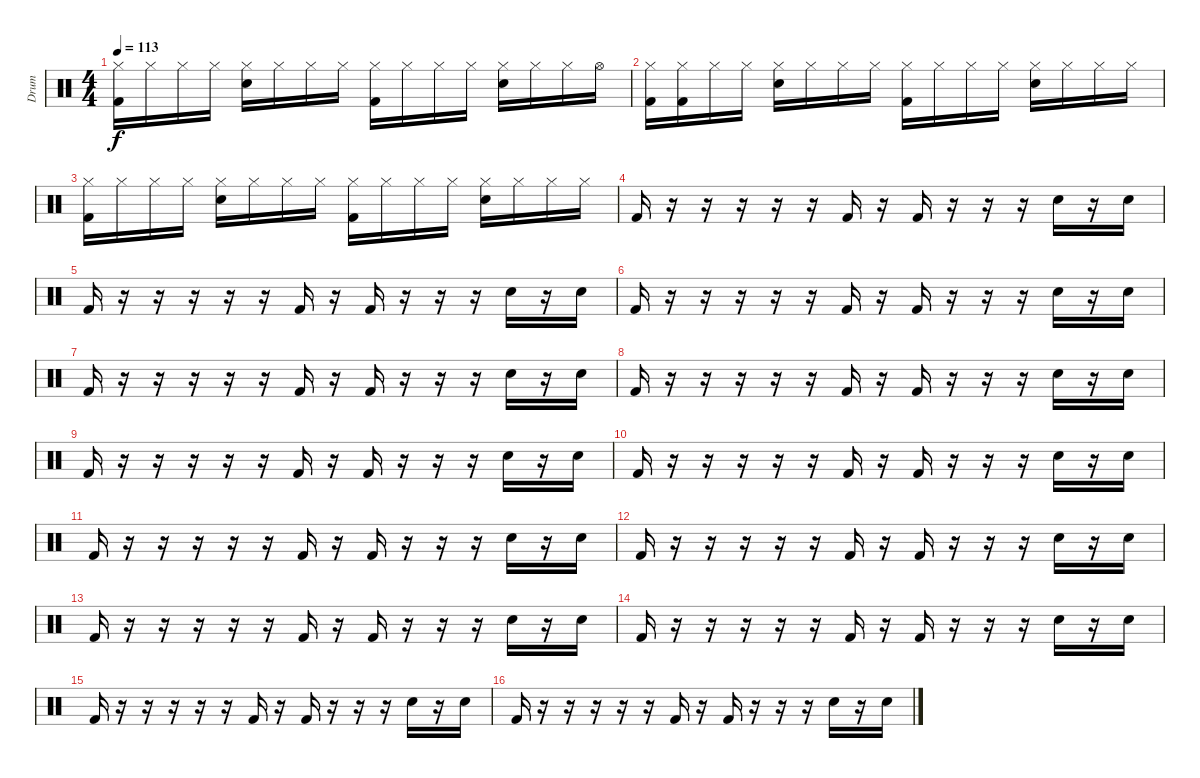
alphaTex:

\track ("Drum" "Drum") {instrument percussion}
\staff {score}
\articulation defaults
\ts (4 4)
\tempo 113
\clef neutral
\ks c
("Hi-Hat (closed)" "Kick (hit) 2").16{dy f} "Hi-Hat (closed)".16 "Hi-Hat (closed)".16 "Hi-Hat (closed)".16 ("Hi-Hat (closed)" "Snare (hit) 2").16 "Hi-Hat (closed)".16 "Hi-Hat (closed)".16 "Hi-Hat (closed)".16 ("Hi-Hat (closed)" "Kick (hit) 2").16 "Hi-Hat (closed)".16 "Hi-Hat (closed)".16 "Hi-Hat (closed)".16 ("Hi-Hat (closed)" "Snare (hit) 2").16 "Hi-Hat (closed)".16 "Hi-Hat (closed)".16 "Hi-Hat (open)".16 |
("Hi-Hat (closed)" "Kick (hit) 2").16 ("Hi-Hat (closed)" "Kick (hit) 2").16 "Hi-Hat (closed)".16 "Hi-Hat (closed)".16 ("Hi-Hat (closed)" "Snare (hit) 2").16 "Hi-Hat (closed)".16 "Hi-Hat (closed)".16 "Hi-Hat (closed)".16 ("Hi-Hat (closed)" "Kick (hit) 2").16 "Hi-Hat (closed)".16 "Hi-Hat (closed)".16 "Hi-Hat (closed)".16 ("Hi-Hat (closed)" "Snare (hit) 2").16 "Hi-Hat (closed)".16 "Hi-Hat (closed)".16 "Hi-Hat (closed)".16 |
("Hi-Hat (closed)" "Kick (hit) 2").16 "Hi-Hat (closed)".16 "Hi-Hat (closed)".16 "Hi-Hat (closed)".16 ("Hi-Hat (closed)" "Snare (hit) 2").16 "Hi-Hat (closed)".16 "Hi-Hat (closed)".16 "Hi-Hat (closed)".16 ("Hi-Hat (closed)" "Kick (hit) 2").16 "Hi-Hat (closed)".16 "Hi-Hat (closed)".16 "Hi-Hat (closed)".16 ("Hi-Hat (closed)" "Snare (hit) 2").16 "Hi-Hat (closed)".16 "Hi-Hat (closed)".16 "Hi-Hat (closed)".16 |
"Kick (hit) 2".16 r.16 r.16 r.16 r.16 r.16 "Kick (hit) 2".16 r.16 "Kick (hit) 2".16 r.16 r.16 r.16 "Hand Clap (hit)".16 r.16 "Hand Clap (hit)".16 |
"Kick (hit) 2".16 r.16 r.16 r.16 r.16 r.16 "Kick (hit) 2".16 r.16 "Kick (hit) 2".16 r.16 r.16 r.16 "Hand Clap (hit)".16 r.16 "Hand Clap (hit)".16 |
"Kick (hit) 2".16 r.16 r.16 r.16 r.16 r.16 "Kick (hit) 2".16 r.16 "Kick (hit) 2".16 r.16 r.16 r.16 "Hand Clap (hit)".16 r.16 "Hand Clap (hit)".16 |
"Kick (hit) 2".16 r.16 r.16 r.16 r.16 r.16 "Kick (hit) 2".16 r.16 "Kick (hit) 2".16 r.16 r.16 r.16 "Hand Clap (hit)".16 r.16 "Hand Clap (hit)".16 |
"Kick (hit) 2".16 r.16 r.16 r.16 r.16 r.16 "Kick (hit) 2".16 r.16 "Kick (hit) 2".16 r.16 r.16 r.16 "Hand Clap (hit)".16 r.16 "Hand Clap (hit)".16 |
"Kick (hit) 2".16 r.16 r.16 r.16 r.16 r.16 "Kick (hit) 2".16 r.16 "Kick (hit) 2".16 r.16 r.16 r.16 "Hand Clap (hit)".16 r.16 "Hand Clap (hit)".16 |
"Kick (hit) 2".16 r.16 r.16 r.16 r.16 r.16 "Kick (hit) 2".16 r.16 "Kick (hit) 2".16 r.16 r.16 r.16 "Hand Clap (hit)".16 r.16 "Hand Clap (hit)".16 |
"Kick (hit) 2".16 r.16 r.16 r.16 r.16 r.16 "Kick (hit) 2".16 r.16 "Kick (hit) 2".16 r.16 r.16 r.16 "Hand Clap (hit)".16 r.16 "Hand Clap (hit)".16 |
"Kick (hit) 2".16 r.16 r.16 r.16 r.16 r.16 "Kick (hit) 2".16 r.16 "Kick (hit) 2".16 r.16 r.16 r.16 "Hand Clap (hit)".16 r.16 "Hand Clap (hit)".16 |
"Kick (hit) 2".16 r.16 r.16 r.16 r.16 r.16 "Kick (hit) 2".16 r.16 "Kick (hit) 2".16 r.16 r.16 r.16 "Hand Clap (hit)".16 r.16 "Hand Clap (hit)".16 |
"Kick (hit) 2".16 r.16 r.16 r.16 r.16 r.16 "Kick (hit) 2".16 r.16 "Kick (hit) 2".16 r.16 r.16 r.16 "Hand Clap (hit)".16 r.16 "Hand Clap (hit)".16 |
"Kick (hit) 2".16 r.16 r.16 r.16 r.16 r.16 "Kick (hit) 2".16 r.16 "Kick (hit) 2".16 r.16 r.16 r.16 "Hand Clap (hit)".16 r.16 "Hand Clap (hit)".16 |
"Kick (hit) 2".16 r.16 r.16 r.16 r.16 r.16 "Kick (hit) 2".16 r.16 "Kick (hit) 2".16 r.16 r.16 r.16 "Hand Clap (hit)".16 r.16 "Hand Clap (hit)".16
